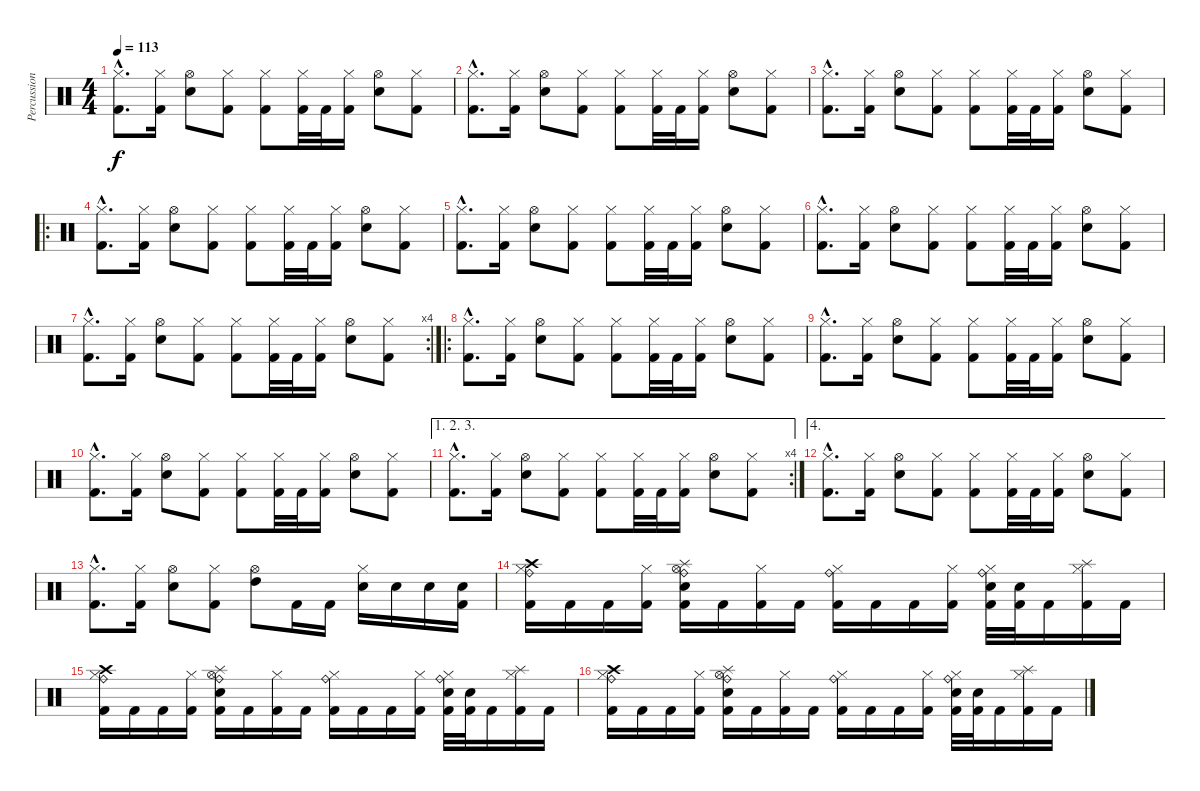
\track ("Percussion" "Percussion") {instrument percussion}
\staff {score}
\articulation defaults
\ts (4 4)
\tempo 113
\clef neutral
\ks c
("Hi-Hat (closed)"{hac} "Kick (hit) 2"{hac}).8{d dy f} ("Hi-Hat (closed)" "Kick (hit) 2").16 ("Hi-Hat (open)" "Snare (hit) 2").8 ("Hi-Hat (closed)" "Kick (hit) 2").8 ("Hi-Hat (closed)" "Kick (hit) 2").8 ("Hi-Hat (closed)" "Kick (hit) 2").32 "Kick (hit) 2".32 ("Hi-Hat (closed)" "Kick (hit) 2").16 ("Hi-Hat (open)" "Snare (hit) 2").8 ("Hi-Hat (closed)" "Kick (hit) 2").8 |
("Hi-Hat (closed)"{hac} "Kick (hit) 2"{hac}).8{d} ("Hi-Hat (closed)" "Kick (hit) 2").16 ("Hi-Hat (open)" "Snare (hit) 2").8 ("Hi-Hat (closed)" "Kick (hit) 2").8 ("Hi-Hat (closed)" "Kick (hit) 2").8 ("Hi-Hat (closed)" "Kick (hit) 2").32 "Kick (hit) 2".32 ("Hi-Hat (closed)" "Kick (hit) 2").16 ("Hi-Hat (open)" "Snare (hit) 2").8 ("Hi-Hat (closed)" "Kick (hit) 2").8 |
("Hi-Hat (closed)"{hac} "Kick (hit) 2"{hac}).8{d} ("Hi-Hat (closed)" "Kick (hit) 2").16 ("Hi-Hat (open)" "Snare (hit) 2").8 ("Hi-Hat (closed)" "Kick (hit) 2").8 ("Hi-Hat (closed)" "Kick (hit) 2").8 ("Hi-Hat (closed)" "Kick (hit) 2").32 "Kick (hit) 2".32 ("Hi-Hat (closed)" "Kick (hit) 2").16 ("Hi-Hat (open)" "Snare (hit) 2").8 ("Hi-Hat (closed)" "Kick (hit) 2").8 |
\ro
("Hi-Hat (closed)"{hac} "Kick (hit) 2"{hac}).8{d} ("Hi-Hat (closed)" "Kick (hit) 2").16 ("Hi-Hat (open)" "Snare (hit) 2").8 ("Hi-Hat (closed)" "Kick (hit) 2").8 ("Hi-Hat (closed)" "Kick (hit) 2").8 ("Hi-Hat (closed)" "Kick (hit) 2").32 "Kick (hit) 2".32 ("Hi-Hat (closed)" "Kick (hit) 2").16 ("Hi-Hat (open)" "Snare (hit) 2").8 ("Hi-Hat (closed)" "Kick (hit) 2").8 |
("Hi-Hat (closed)"{hac} "Kick (hit) 2"{hac}).8{d} ("Hi-Hat (closed)" "Kick (hit) 2").16 ("Hi-Hat (open)" "Snare (hit) 2").8 ("Hi-Hat (closed)" "Kick (hit) 2").8 ("Hi-Hat (closed)" "Kick (hit) 2").8 ("Hi-Hat (closed)" "Kick (hit) 2").32 "Kick (hit) 2".32 ("Hi-Hat (closed)" "Kick (hit) 2").16 ("Hi-Hat (open)" "Snare (hit) 2").8 ("Hi-Hat (closed)" "Kick (hit) 2").8 |
("Hi-Hat (closed)"{hac} "Kick (hit) 2"{hac}).8{d} ("Hi-Hat (closed)" "Kick (hit) 2").16 ("Hi-Hat (open)" "Snare (hit) 2").8 ("Hi-Hat (closed)" "Kick (hit) 2").8 ("Hi-Hat (closed)" "Kick (hit) 2").8 ("Hi-Hat (closed)" "Kick (hit) 2").32 "Kick (hit) 2".32 ("Hi-Hat (closed)" "Kick (hit) 2").16 ("Hi-Hat (open)" "Snare (hit) 2").8 ("Hi-Hat (closed)" "Kick (hit) 2").8 |
\rc 4
("Hi-Hat (closed)"{hac} "Kick (hit) 2"{hac}).8{d} ("Hi-Hat (closed)" "Kick (hit) 2").16 ("Hi-Hat (open)" "Snare (hit) 2").8 ("Hi-Hat (closed)" "Kick (hit) 2").8 ("Hi-Hat (closed)" "Kick (hit) 2").8 ("Hi-Hat (closed)" "Kick (hit) 2").32 "Kick (hit) 2".32 ("Hi-Hat (closed)" "Kick (hit) 2").16 ("Hi-Hat (open)" "Snare (hit) 2").8 ("Hi-Hat (closed)" "Kick (hit) 2").8 |
\ro
("Hi-Hat (closed)"{hac} "Kick (hit) 2"{hac}).8{d} ("Hi-Hat (closed)" "Kick (hit) 2").16 ("Hi-Hat (open)" "Snare (hit) 2").8 ("Hi-Hat (closed)" "Kick (hit) 2").8 ("Hi-Hat (closed)" "Kick (hit) 2").8 ("Hi-Hat (closed)" "Kick (hit) 2").32 "Kick (hit) 2".32 ("Hi-Hat (closed)" "Kick (hit) 2").16 ("Hi-Hat (open)" "Snare (hit) 2").8 ("Hi-Hat (closed)" "Kick (hit) 2").8 |
("Hi-Hat (closed)"{hac} "Kick (hit) 2"{hac}).8{d} ("Hi-Hat (closed)" "Kick (hit) 2").16 ("Hi-Hat (open)" "Snare (hit) 2").8 ("Hi-Hat (closed)" "Kick (hit) 2").8 ("Hi-Hat (closed)" "Kick (hit) 2").8 ("Hi-Hat (closed)" "Kick (hit) 2").32 "Kick (hit) 2".32 ("Hi-Hat (closed)" "Kick (hit) 2").16 ("Hi-Hat (open)" "Snare (hit) 2").8 ("Hi-Hat (closed)" "Kick (hit) 2").8 |
("Hi-Hat (closed)"{hac} "Kick (hit) 2"{hac}).8{d} ("Hi-Hat (closed)" "Kick (hit) 2").16 ("Hi-Hat (open)" "Snare (hit) 2").8 ("Hi-Hat (closed)" "Kick (hit) 2").8 ("Hi-Hat (closed)" "Kick (hit) 2").8 ("Hi-Hat (closed)" "Kick (hit) 2").32 "Kick (hit) 2".32 ("Hi-Hat (closed)" "Kick (hit) 2").16 ("Hi-Hat (open)" "Snare (hit) 2").8 ("Hi-Hat (closed)" "Kick (hit) 2").8 |
\ae (1 2 3)
\rc 4
("Hi-Hat (closed)"{hac} "Kick (hit) 2"{hac}).8{d} ("Hi-Hat (closed)" "Kick (hit) 2").16 ("Hi-Hat (open)" "Snare (hit) 2").8 ("Hi-Hat (closed)" "Kick (hit) 2").8 ("Hi-Hat (closed)" "Kick (hit) 2").8 ("Hi-Hat (closed)" "Kick (hit) 2").32 "Kick (hit) 2".32 ("Hi-Hat (closed)" "Kick (hit) 2").16 ("Hi-Hat (open)" "Snare (hit) 2").8 ("Hi-Hat (closed)" "Kick (hit) 2").8 |
\ae 4
("Hi-Hat (closed)"{hac} "Kick (hit) 2"{hac}).8{d} ("Hi-Hat (closed)" "Kick (hit) 2").16 ("Hi-Hat (open)" "Snare (hit) 2").8 ("Hi-Hat (closed)" "Kick (hit) 2").8 ("Hi-Hat (closed)" "Kick (hit) 2").8 ("Hi-Hat (closed)" "Kick (hit) 2").32 "Kick (hit) 2".32 ("Hi-Hat (closed)" "Kick (hit) 2").16 ("Hi-Hat (open)" "Snare (hit) 2").8 ("Hi-Hat (closed)" "Kick (hit) 2").8 |
("Hi-Hat (closed)"{hac} "Kick (hit) 2"{hac}).8{d} ("Hi-Hat (closed)" "Kick (hit) 2").16 ("Hi-Hat (open)" "Snare (hit) 2").8 ("Hi-Hat (closed)" "Kick (hit) 2").8 ("Hi-Hat (open)" "High Tom (hit)").8 "Kick (hit) 2".16 "Kick (hit) 2".16 ("Hi-Hat (closed)" "Snare (hit) 2").16 "Snare (hit) 2".16 "Snare (hit) 2".16 ("Snare (hit) 2" "Kick (hit) 2").16 |
("Ride (bell)" "Crash high (hit)" "Hi-Hat (closed)" "Kick (hit) 2").16 "Kick (hit) 2".16 "Kick (hit) 2".16 ("Hi-Hat (closed)" "Kick (hit) 2").16 ("Ride (bell)" "Hi-Hat (open)" "Splash (hit)" "Snare (hit) 2" "Kick (hit) 2").16 "Kick (hit) 2".16 ("Hi-Hat (closed)" "Kick (hit) 2").16 "Kick (hit) 2".16 ("Ride (bell)" "Hi-Hat (closed)" "Kick (hit) 2").16 "Kick (hit) 2".16 "Kick (hit) 2".16 ("Hi-Hat (closed)" "Kick (hit) 2").16 ("Ride (bell)" "Hi-Hat (closed)" "Snare (hit) 2" "Kick (hit) 2").32 ("Snare (hit) 2" "Kick (hit) 2").32 "Kick (hit) 2".16 ("Hi-Hat (closed)" "Splash (hit)" "Kick (hit) 2").16 "Kick (hit) 2".16 |
("Ride (bell)" "Crash high (hit)" "Hi-Hat (closed)" "Kick (hit) 2").16 "Kick (hit) 2".16 "Kick (hit) 2".16 ("Hi-Hat (closed)" "Kick (hit) 2").16 ("Ride (bell)" "Hi-Hat (open)" "Splash (hit)" "Snare (hit) 2" "Kick (hit) 2").16 "Kick (hit) 2".16 ("Hi-Hat (closed)" "Kick (hit) 2").16 "Kick (hit) 2".16 ("Ride (bell)" "Hi-Hat (closed)" "Kick (hit) 2").16 "Kick (hit) 2".16 "Kick (hit) 2".16 ("Hi-Hat (closed)" "Kick (hit) 2").16 ("Ride (bell)" "Hi-Hat (closed)" "Snare (hit) 2" "Kick (hit) 2").32 ("Snare (hit) 2" "Kick (hit) 2").32 "Kick (hit) 2".16 ("Hi-Hat (closed)" "Splash (hit)" "Kick (hit) 2").16 "Kick (hit) 2".16 |
("Ride (bell)" "Crash high (hit)" "Hi-Hat (closed)" "Kick (hit) 2").16 "Kick (hit) 2".16 "Kick (hit) 2".16 ("Hi-Hat (closed)" "Kick (hit) 2").16 ("Ride (bell)" "Hi-Hat (open)" "Splash (hit)" "Snare (hit) 2" "Kick (hit) 2").16 "Kick (hit) 2".16 ("Hi-Hat (closed)" "Kick (hit) 2").16 "Kick (hit) 2".16 ("Ride (bell)" "Hi-Hat (closed)" "Kick (hit) 2").16 "Kick (hit) 2".16 "Kick (hit) 2".16 ("Hi-Hat (closed)" "Kick (hit) 2").16 ("Ride (bell)" "Hi-Hat (closed)" "Snare (hit) 2" "Kick (hit) 2").32 ("Snare (hit) 2" "Kick (hit) 2").32 "Kick (hit) 2".16 ("Hi-Hat (closed)" "Splash (hit)" "Kick (hit) 2").16 "Kick (hit) 2".16
